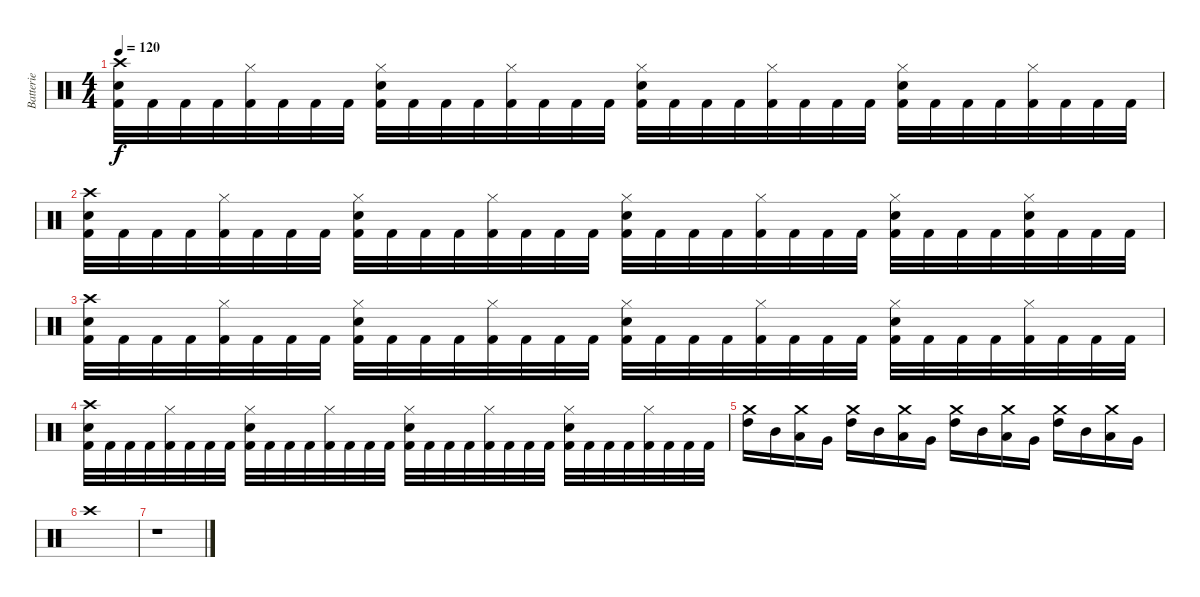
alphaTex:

\track ("Batterie" "Batterie") {instrument percussion}
\staff {score}
\articulation defaults
\ts (4 4)
\tempo 120
\clef neutral
\ks c
("Crash high (hit)" "Electric Snare (hit)" "Kick (hit) 2").32{dy f} "Kick (hit) 2".32 "Kick (hit) 2".32 "Kick (hit) 2".32 ("Hi-Hat (closed)" "Kick (hit) 2").32 "Kick (hit) 2".32 "Kick (hit) 2".32 "Kick (hit) 2".32 ("Hi-Hat (closed)" "Electric Snare (hit)" "Kick (hit) 2").32 "Kick (hit) 2".32 "Kick (hit) 2".32 "Kick (hit) 2".32 ("Hi-Hat (closed)" "Kick (hit) 2").32 "Kick (hit) 2".32 "Kick (hit) 2".32 "Kick (hit) 2".32 ("Hi-Hat (closed)" "Electric Snare (hit)" "Kick (hit) 2").32 "Kick (hit) 2".32 "Kick (hit) 2".32 "Kick (hit) 2".32 ("Hi-Hat (closed)" "Kick (hit) 2").32 "Kick (hit) 2".32 "Kick (hit) 2".32 "Kick (hit) 2".32 ("Hi-Hat (closed)" "Electric Snare (hit)" "Kick (hit) 2").32 "Kick (hit) 2".32 "Kick (hit) 2".32 "Kick (hit) 2".32 ("Hi-Hat (closed)" "Kick (hit) 2").32 "Kick (hit) 2".32 "Kick (hit) 2".32 "Kick (hit) 2".32 |
("Crash high (hit)" "Electric Snare (hit)" "Kick (hit) 2").32 "Kick (hit) 2".32 "Kick (hit) 2".32 "Kick (hit) 2".32 ("Hi-Hat (closed)" "Kick (hit) 2").32 "Kick (hit) 2".32 "Kick (hit) 2".32 "Kick (hit) 2".32 ("Hi-Hat (closed)" "Electric Snare (hit)" "Kick (hit) 2").32 "Kick (hit) 2".32 "Kick (hit) 2".32 "Kick (hit) 2".32 ("Hi-Hat (closed)" "Kick (hit) 2").32 "Kick (hit) 2".32 "Kick (hit) 2".32 "Kick (hit) 2".32 ("Hi-Hat (closed)" "Electric Snare (hit)" "Kick (hit) 2").32 "Kick (hit) 2".32 "Kick (hit) 2".32 "Kick (hit) 2".32 ("Hi-Hat (closed)" "Kick (hit) 2").32 "Kick (hit) 2".32 "Kick (hit) 2".32 "Kick (hit) 2".32 ("Hi-Hat (closed)" "Electric Snare (hit)" "Kick (hit) 2").32 "Kick (hit) 2".32 "Kick (hit) 2".32 "Kick (hit) 2".32 ("Hi-Hat (closed)" "Electric Snare (hit)" "Kick (hit) 2").32 "Kick (hit) 2".32 "Kick (hit) 2".32 "Kick (hit) 2".32 |
("Crash high (hit)" "Electric Snare (hit)" "Kick (hit) 2").32 "Kick (hit) 2".32 "Kick (hit) 2".32 "Kick (hit) 2".32 ("Hi-Hat (closed)" "Kick (hit) 2").32 "Kick (hit) 2".32 "Kick (hit) 2".32 "Kick (hit) 2".32 ("Hi-Hat (closed)" "Electric Snare (hit)" "Kick (hit) 2").32 "Kick (hit) 2".32 "Kick (hit) 2".32 "Kick (hit) 2".32 ("Hi-Hat (closed)" "Kick (hit) 2").32 "Kick (hit) 2".32 "Kick (hit) 2".32 "Kick (hit) 2".32 ("Hi-Hat (closed)" "Electric Snare (hit)" "Kick (hit) 2").32 "Kick (hit) 2".32 "Kick (hit) 2".32 "Kick (hit) 2".32 ("Hi-Hat (closed)" "Kick (hit) 2").32 "Kick (hit) 2".32 "Kick (hit) 2".32 "Kick (hit) 2".32 ("Hi-Hat (closed)" "Electric Snare (hit)" "Kick (hit) 2").32 "Kick (hit) 2".32 "Kick (hit) 2".32 "Kick (hit) 2".32 ("Hi-Hat (closed)" "Kick (hit) 2").32 "Kick (hit) 2".32 "Kick (hit) 2".32 "Kick (hit) 2".32 |
("Crash high (hit)" "Electric Snare (hit)" "Kick (hit) 2").32 "Kick (hit) 2".32 "Kick (hit) 2".32 "Kick (hit) 2".32 ("Hi-Hat (closed)" "Kick (hit) 2").32 "Kick (hit) 2".32 "Kick (hit) 2".32 "Kick (hit) 2".32 ("Hi-Hat (closed)" "Electric Snare (hit)" "Kick (hit) 2").32 "Kick (hit) 2".32 "Kick (hit) 2".32 "Kick (hit) 2".32 ("Hi-Hat (closed)" "Kick (hit) 2").32 "Kick (hit) 2".32 "Kick (hit) 2".32 "Kick (hit) 2".32 ("Hi-Hat (closed)" "Electric Snare (hit)" "Kick (hit) 2").32 "Kick (hit) 2".32 "Kick (hit) 2".32 "Kick (hit) 2".32 ("Hi-Hat (closed)" "Kick (hit) 2").32 "Kick (hit) 2".32 "Kick (hit) 2".32 "Kick (hit) 2".32 ("Hi-Hat (closed)" "Electric Snare (hit)" "Kick (hit) 2").32 "Kick (hit) 2".32 "Kick (hit) 2".32 "Kick (hit) 2".32 ("Hi-Hat (closed)" "Kick (hit) 2").32 "Kick (hit) 2".32 "Kick (hit) 2".32 "Kick (hit) 2".32 |
("Crash medium (hit)" "High Tom (hit)").16 "Mid Tom (hit)".16 ("Crash medium (hit)" "Low Tom (hit)").16 "Very Low Tom (hit)".16 ("Crash medium (hit)" "High Tom (hit)").16 "Mid Tom (hit)".16 ("Crash medium (hit)" "Low Tom (hit)").16 "Very Low Tom (hit)".16 ("Crash medium (hit)" "High Tom (hit)").16 "Mid Tom (hit)".16 ("Crash medium (hit)" "Low Tom (hit)").16 "Very Low Tom (hit)".16 ("Crash medium (hit)" "High Tom (hit)").16 "Mid Tom (hit)".16 ("Crash medium (hit)" "Low Tom (hit)").16 "Very Low Tom (hit)".16 |
"Crash high (hit)".1 |
r.1
